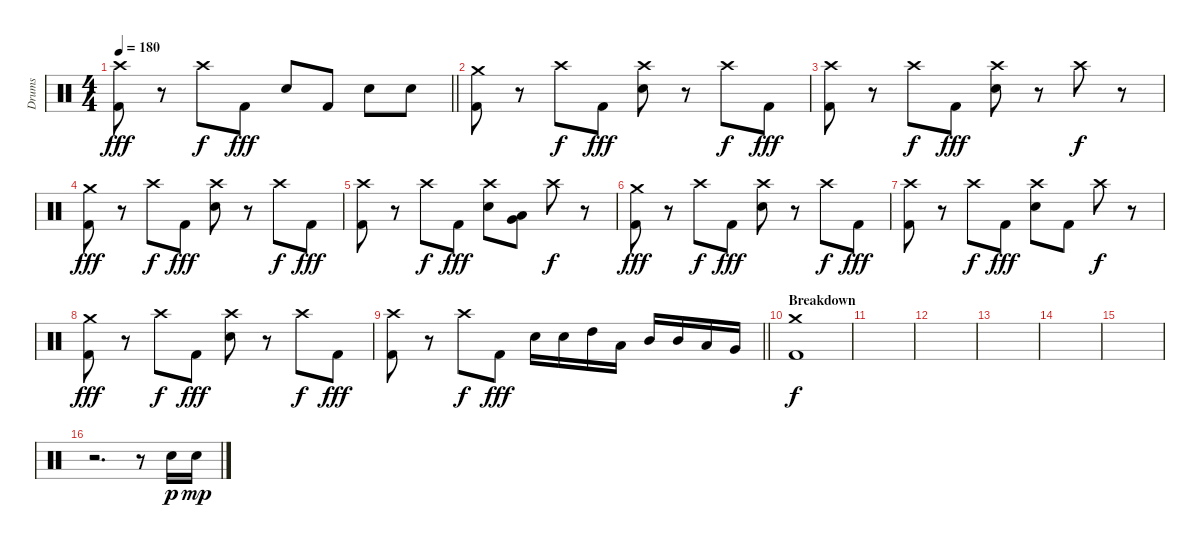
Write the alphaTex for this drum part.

\track ("Drums" "Drums") {instrument percussion}
\staff {score}
\articulation defaults
\ts (4 4)
\tempo 180
\clef neutral
\barLineRight lightlight
\ks c
("Crash high (hit)" "Kick (hit) 2").8{dy fff} r.8 "Crash high (hit)".8{dy f} "Kick (hit) 2".8{dy fff} "Electric Snare (hit)".8 "Kick (hit) 2".8 "Electric Snare (hit)".8 "Electric Snare (hit)".8 |
\section ("" "")
("Crash medium (hit)" "Kick (hit) 2").8 r.8 "Crash high (hit)".8{dy f} "Kick (hit) 2".8{dy fff} ("Crash high (hit)" "Electric Snare (hit)").8 r.8 "Crash high (hit)".8{dy f} "Kick (hit) 2".8{dy fff} |
("Crash high (hit)" "Kick (hit) 2").8 r.8 "Crash high (hit)".8{dy f} "Kick (hit) 2".8{dy fff} ("Crash high (hit)" "Electric Snare (hit)").8 r.8 "Crash high (hit)".8{dy f} r.8 |
("Crash medium (hit)" "Kick (hit) 2").8{dy fff} r.8 "Crash high (hit)".8{dy f} "Kick (hit) 2".8{dy fff} ("Crash high (hit)" "Electric Snare (hit)").8 r.8 "Crash high (hit)".8{dy f} "Kick (hit) 2".8{dy fff} |
("Crash high (hit)" "Kick (hit) 2").8 r.8 "Crash high (hit)".8{dy f} "Kick (hit) 2".8{dy fff} ("Crash high (hit)" "Electric Snare (hit)").8 ("Low Tom (hit)" "Very Low Tom (hit)").8 "Crash high (hit)".8{dy f} r.8 |
("Crash medium (hit)" "Kick (hit) 2").8{dy fff} r.8 "Crash high (hit)".8{dy f} "Kick (hit) 2".8{dy fff} ("Crash high (hit)" "Electric Snare (hit)").8 r.8 "Crash high (hit)".8{dy f} "Kick (hit) 2".8{dy fff} |
("Crash high (hit)" "Kick (hit) 2").8 r.8 "Crash high (hit)".8{dy f} "Kick (hit) 2".8{dy fff} ("Crash high (hit)" "Electric Snare (hit)").8 "Kick (hit) 2".8 "Crash high (hit)".8{dy f} r.8 |
("Crash medium (hit)" "Kick (hit) 2").8{dy fff} r.8 "Crash high (hit)".8{dy f} "Kick (hit) 2".8{dy fff} ("Crash high (hit)" "Electric Snare (hit)").8 r.8 "Crash high (hit)".8{dy f} "Kick (hit) 2".8{dy fff} |
\barLineRight lightlight
("Crash high (hit)" "Kick (hit) 2").8 r.8 "Crash high (hit)".8{dy f} "Kick (hit) 2".8{dy fff} "Electric Snare (hit)".16 "Electric Snare (hit)".16 "High Tom (hit)".16 "Low Tom (hit)".16 "Mid Tom (hit)".16 "Mid Tom (hit)".16 "Low Tom (hit)".16 "Very Low Tom (hit)".16 |
\section ("" "Breakdown")
("Crash medium (hit)" "Kick (hit) 2").1{dy f} |
|
|
|
|
|
r.2{d} r.8 "Electric Snare (hit)".16{dy p} "Electric Snare (hit)".16{dy mp}
